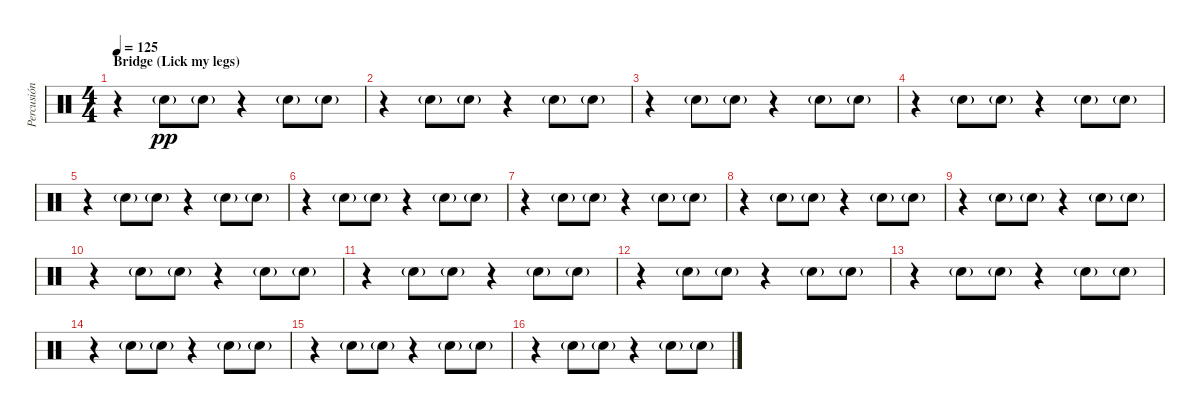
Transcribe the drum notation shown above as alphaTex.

\track ("Percusión" "Percusión") {instrument percussion}
\staff {score}
\articulation defaults
\ts (4 4)
\section ("" "Bridge (Lick my legs)")
\tempo 125
\clef neutral
\ks c
r.4{dy pp} "Snare (hit) 2"{g}.8 "Snare (hit) 2"{g}.8 r.4 "Snare (hit) 2"{g}.8 "Snare (hit) 2"{g}.8 |
r.4 "Snare (hit) 2"{g}.8 "Snare (hit) 2"{g}.8 r.4 "Snare (hit) 2"{g}.8 "Snare (hit) 2"{g}.8 |
r.4 "Snare (hit) 2"{g}.8 "Snare (hit) 2"{g}.8 r.4 "Snare (hit) 2"{g}.8 "Snare (hit) 2"{g}.8 |
r.4 "Snare (hit) 2"{g}.8 "Snare (hit) 2"{g}.8 r.4 "Snare (hit) 2"{g}.8 "Snare (hit) 2"{g}.8 |
r.4 "Snare (hit) 2"{g}.8 "Snare (hit) 2"{g}.8 r.4 "Snare (hit) 2"{g}.8 "Snare (hit) 2"{g}.8 |
r.4 "Snare (hit) 2"{g}.8 "Snare (hit) 2"{g}.8 r.4 "Snare (hit) 2"{g}.8 "Snare (hit) 2"{g}.8 |
r.4 "Snare (hit) 2"{g}.8 "Snare (hit) 2"{g}.8 r.4 "Snare (hit) 2"{g}.8 "Snare (hit) 2"{g}.8 |
r.4 "Snare (hit) 2"{g}.8 "Snare (hit) 2"{g}.8 r.4 "Snare (hit) 2"{g}.8 "Snare (hit) 2"{g}.8 |
r.4 "Snare (hit) 2"{g}.8 "Snare (hit) 2"{g}.8 r.4 "Snare (hit) 2"{g}.8 "Snare (hit) 2"{g}.8 |
r.4 "Snare (hit) 2"{g}.8 "Snare (hit) 2"{g}.8 r.4 "Snare (hit) 2"{g}.8 "Snare (hit) 2"{g}.8 |
r.4 "Snare (hit) 2"{g}.8 "Snare (hit) 2"{g}.8 r.4 "Snare (hit) 2"{g}.8 "Snare (hit) 2"{g}.8 |
r.4 "Snare (hit) 2"{g}.8 "Snare (hit) 2"{g}.8 r.4 "Snare (hit) 2"{g}.8 "Snare (hit) 2"{g}.8 |
r.4 "Snare (hit) 2"{g}.8 "Snare (hit) 2"{g}.8 r.4 "Snare (hit) 2"{g}.8 "Snare (hit) 2"{g}.8 |
r.4 "Snare (hit) 2"{g}.8 "Snare (hit) 2"{g}.8 r.4 "Snare (hit) 2"{g}.8 "Snare (hit) 2"{g}.8 |
r.4 "Snare (hit) 2"{g}.8 "Snare (hit) 2"{g}.8 r.4 "Snare (hit) 2"{g}.8 "Snare (hit) 2"{g}.8 |
r.4 "Snare (hit) 2"{g}.8 "Snare (hit) 2"{g}.8 r.4 "Snare (hit) 2"{g}.8 "Snare (hit) 2"{g}.8
